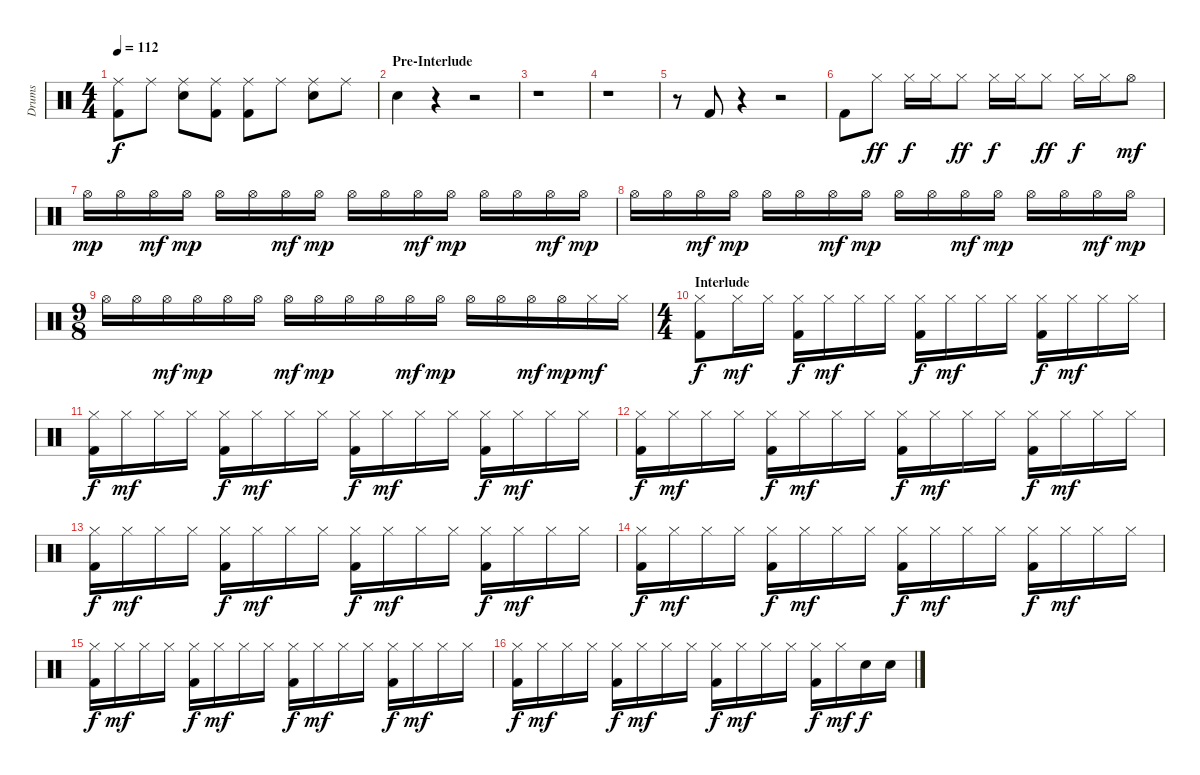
\track ("Drums" "Drums") {instrument percussion}
\staff {score}
\articulation defaults
\ts (4 4)
\tempo 112
\clef neutral
\ks c
("Ride (middle)" "Kick (hit) 2").8{dy f} "Ride (middle)".8 ("Ride (middle)" "Electric Snare (hit)").8 ("Ride (middle)" "Kick (hit) 2").8 ("Ride (middle)" "Kick (hit) 2").8 "Ride (middle)".8 ("Ride (middle)" "Electric Snare (hit)").8 "Ride (middle)".8 |
\section ("" "Pre-Interlude")
"Electric Snare (hit)".4 r.4 r.2 |
r.1 |
r.1 |
r.8 "Kick (hit) 2".8 r.4 r.2 |
"Kick (hit) 2".8 "Hi-Hat (closed)".8{dy ff} "Hi-Hat (closed)".16{dy f} "Hi-Hat (closed)".16 "Hi-Hat (closed)".8{dy ff} "Hi-Hat (closed)".16{dy f} "Hi-Hat (closed)".16 "Hi-Hat (closed)".8{dy ff} "Hi-Hat (closed)".16{dy f} "Hi-Hat (closed)".16 "Hi-Hat (open)".8{dy mf} |
"Hi-Hat (open)".16{dy mp} "Hi-Hat (open)".16 "Hi-Hat (open)".16{dy mf} "Hi-Hat (open)".16{dy mp} "Hi-Hat (open)".16 "Hi-Hat (open)".16 "Hi-Hat (open)".16{dy mf} "Hi-Hat (open)".16{dy mp} "Hi-Hat (open)".16 "Hi-Hat (open)".16 "Hi-Hat (open)".16{dy mf} "Hi-Hat (open)".16{dy mp} "Hi-Hat (open)".16 "Hi-Hat (open)".16 "Hi-Hat (open)".16{dy mf} "Hi-Hat (open)".16{dy mp} |
"Hi-Hat (open)".16 "Hi-Hat (open)".16 "Hi-Hat (open)".16{dy mf} "Hi-Hat (open)".16{dy mp} "Hi-Hat (open)".16 "Hi-Hat (open)".16 "Hi-Hat (open)".16{dy mf} "Hi-Hat (open)".16{dy mp} "Hi-Hat (open)".16 "Hi-Hat (open)".16 "Hi-Hat (open)".16{dy mf} "Hi-Hat (open)".16{dy mp} "Hi-Hat (open)".16 "Hi-Hat (open)".16 "Hi-Hat (open)".16{dy mf} "Hi-Hat (open)".16{dy mp} |
\ts (9 8)
"Hi-Hat (open)".16 "Hi-Hat (open)".16 "Hi-Hat (open)".16{dy mf} "Hi-Hat (open)".16{dy mp} "Hi-Hat (open)".16 "Hi-Hat (open)".16 "Hi-Hat (open)".16{dy mf} "Hi-Hat (open)".16{dy mp} "Hi-Hat (open)".16 "Hi-Hat (open)".16 "Hi-Hat (open)".16{dy mf} "Hi-Hat (open)".16{dy mp} "Hi-Hat (open)".16 "Hi-Hat (open)".16 "Hi-Hat (open)".16{dy mf} "Hi-Hat (open)".16{dy mp} "Hi-Hat (closed)".16{dy mf} "Hi-Hat (closed)".16 |
\ts (4 4)
\section ("" "Interlude")
("Hi-Hat (closed)" "Kick (hit) 2").8{dy f} "Hi-Hat (closed)".16{dy mf} "Hi-Hat (closed)".16 ("Hi-Hat (closed)" "Kick (hit) 2").16{dy f} "Hi-Hat (closed)".16{dy mf} "Hi-Hat (closed)".16 "Hi-Hat (closed)".16 ("Hi-Hat (closed)" "Kick (hit) 2").16{dy f} "Hi-Hat (closed)".16{dy mf} "Hi-Hat (closed)".16 "Hi-Hat (closed)".16 ("Hi-Hat (closed)" "Kick (hit) 2").16{dy f} "Hi-Hat (closed)".16{dy mf} "Hi-Hat (closed)".16 "Hi-Hat (closed)".16 |
("Hi-Hat (closed)" "Kick (hit) 2").16{dy f} "Hi-Hat (closed)".16{dy mf} "Hi-Hat (closed)".16 "Hi-Hat (closed)".16 ("Hi-Hat (closed)" "Kick (hit) 2").16{dy f} "Hi-Hat (closed)".16{dy mf} "Hi-Hat (closed)".16 "Hi-Hat (closed)".16 ("Hi-Hat (closed)" "Kick (hit) 2").16{dy f} "Hi-Hat (closed)".16{dy mf} "Hi-Hat (closed)".16 "Hi-Hat (closed)".16 ("Hi-Hat (closed)" "Kick (hit) 2").16{dy f} "Hi-Hat (closed)".16{dy mf} "Hi-Hat (closed)".16 "Hi-Hat (closed)".16 |
("Hi-Hat (closed)" "Kick (hit) 2").16{dy f} "Hi-Hat (closed)".16{dy mf} "Hi-Hat (closed)".16 "Hi-Hat (closed)".16 ("Hi-Hat (closed)" "Kick (hit) 2").16{dy f} "Hi-Hat (closed)".16{dy mf} "Hi-Hat (closed)".16 "Hi-Hat (closed)".16 ("Hi-Hat (closed)" "Kick (hit) 2").16{dy f} "Hi-Hat (closed)".16{dy mf} "Hi-Hat (closed)".16 "Hi-Hat (closed)".16 ("Hi-Hat (closed)" "Kick (hit) 2").16{dy f} "Hi-Hat (closed)".16{dy mf} "Hi-Hat (closed)".16 "Hi-Hat (closed)".16 |
("Hi-Hat (closed)" "Kick (hit) 2").16{dy f} "Hi-Hat (closed)".16{dy mf} "Hi-Hat (closed)".16 "Hi-Hat (closed)".16 ("Hi-Hat (closed)" "Kick (hit) 2").16{dy f} "Hi-Hat (closed)".16{dy mf} "Hi-Hat (closed)".16 "Hi-Hat (closed)".16 ("Hi-Hat (closed)" "Kick (hit) 2").16{dy f} "Hi-Hat (closed)".16{dy mf} "Hi-Hat (closed)".16 "Hi-Hat (closed)".16 ("Hi-Hat (closed)" "Kick (hit) 2").16{dy f} "Hi-Hat (closed)".16{dy mf} "Hi-Hat (closed)".16 "Hi-Hat (closed)".16 |
("Hi-Hat (closed)" "Kick (hit) 2").16{dy f} "Hi-Hat (closed)".16{dy mf} "Hi-Hat (closed)".16 "Hi-Hat (closed)".16 ("Hi-Hat (closed)" "Kick (hit) 2").16{dy f} "Hi-Hat (closed)".16{dy mf} "Hi-Hat (closed)".16 "Hi-Hat (closed)".16 ("Hi-Hat (closed)" "Kick (hit) 2").16{dy f} "Hi-Hat (closed)".16{dy mf} "Hi-Hat (closed)".16 "Hi-Hat (closed)".16 ("Hi-Hat (closed)" "Kick (hit) 2").16{dy f} "Hi-Hat (closed)".16{dy mf} "Hi-Hat (closed)".16 "Hi-Hat (closed)".16 |
("Hi-Hat (closed)" "Kick (hit) 2").16{dy f} "Hi-Hat (closed)".16{dy mf} "Hi-Hat (closed)".16 "Hi-Hat (closed)".16 ("Hi-Hat (closed)" "Kick (hit) 2").16{dy f} "Hi-Hat (closed)".16{dy mf} "Hi-Hat (closed)".16 "Hi-Hat (closed)".16 ("Hi-Hat (closed)" "Kick (hit) 2").16{dy f} "Hi-Hat (closed)".16{dy mf} "Hi-Hat (closed)".16 "Hi-Hat (closed)".16 ("Hi-Hat (closed)" "Kick (hit) 2").16{dy f} "Hi-Hat (closed)".16{dy mf} "Hi-Hat (closed)".16 "Hi-Hat (closed)".16 |
("Hi-Hat (closed)" "Kick (hit) 2").16{dy f} "Hi-Hat (closed)".16{dy mf} "Hi-Hat (closed)".16 "Hi-Hat (closed)".16 ("Hi-Hat (closed)" "Kick (hit) 2").16{dy f} "Hi-Hat (closed)".16{dy mf} "Hi-Hat (closed)".16 "Hi-Hat (closed)".16 ("Hi-Hat (closed)" "Kick (hit) 2").16{dy f} "Hi-Hat (closed)".16{dy mf} "Hi-Hat (closed)".16 "Hi-Hat (closed)".16 ("Hi-Hat (closed)" "Kick (hit) 2").16{dy f} "Hi-Hat (closed)".16{dy mf} "Electric Snare (hit)".16{dy f} "Electric Snare (hit)".16
